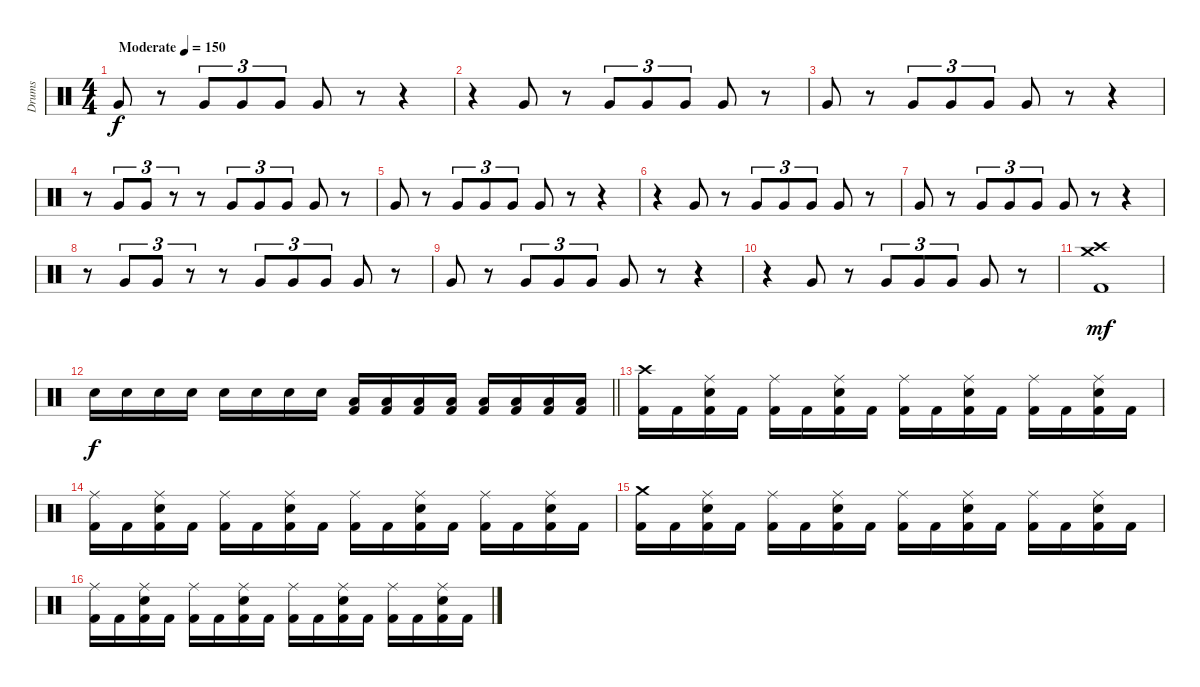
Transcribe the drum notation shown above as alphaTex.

\track ("Drums" "Drums") {instrument percussion}
\staff {score}
\articulation defaults
\ts (4 4)
\tempo (150 "Moderate")
\clef neutral
\ks c "Very Low Tom (hit)".8{dy f}
r.8 "Very Low Tom (hit)".8{tu (3 2)} "Very Low Tom (hit)".8{tu (3 2)} "Very Low Tom (hit)".8{tu (3 2)} "Very Low Tom (hit)".8 r.8 r.4 |
r.4 "Very Low Tom (hit)".8 r.8 "Very Low Tom (hit)".8{tu (3 2)} "Very Low Tom (hit)".8{tu (3 2)} "Very Low Tom (hit)".8{tu (3 2)} "Very Low Tom (hit)".8 r.8 |
"Very Low Tom (hit)".8 r.8 "Very Low Tom (hit)".8{tu (3 2)} "Very Low Tom (hit)".8{tu (3 2)} "Very Low Tom (hit)".8{tu (3 2)} "Very Low Tom (hit)".8 r.8 r.4 |
r.8 "Very Low Tom (hit)".8{tu (3 2)} "Very Low Tom (hit)".8{tu (3 2)} r.8{tu (3 2)} r.8 "Very Low Tom (hit)".8{tu (3 2)} "Very Low Tom (hit)".8{tu (3 2)} "Very Low Tom (hit)".8{tu (3 2)} "Very Low Tom (hit)".8 r.8 |
"Very Low Tom (hit)".8 r.8 "Very Low Tom (hit)".8{tu (3 2)} "Very Low Tom (hit)".8{tu (3 2)} "Very Low Tom (hit)".8{tu (3 2)} "Very Low Tom (hit)".8 r.8 r.4 |
r.4 "Very Low Tom (hit)".8 r.8 "Very Low Tom (hit)".8{tu (3 2)} "Very Low Tom (hit)".8{tu (3 2)} "Very Low Tom (hit)".8{tu (3 2)} "Very Low Tom (hit)".8 r.8 |
"Very Low Tom (hit)".8 r.8 "Very Low Tom (hit)".8{tu (3 2)} "Very Low Tom (hit)".8{tu (3 2)} "Very Low Tom (hit)".8{tu (3 2)} "Very Low Tom (hit)".8 r.8 r.4 |
r.8 "Very Low Tom (hit)".8{tu (3 2)} "Very Low Tom (hit)".8{tu (3 2)} r.8{tu (3 2)} r.8 "Very Low Tom (hit)".8{tu (3 2)} "Very Low Tom (hit)".8{tu (3 2)} "Very Low Tom (hit)".8{tu (3 2)} "Very Low Tom (hit)".8 r.8 |
"Very Low Tom (hit)".8 r.8 "Very Low Tom (hit)".8{tu (3 2)} "Very Low Tom (hit)".8{tu (3 2)} "Very Low Tom (hit)".8{tu (3 2)} "Very Low Tom (hit)".8 r.8 r.4 |
r.4 "Very Low Tom (hit)".8 r.8 "Very Low Tom (hit)".8{tu (3 2)} "Very Low Tom (hit)".8{tu (3 2)} "Very Low Tom (hit)".8{tu (3 2)} "Very Low Tom (hit)".8 r.8 |
("Crash medium (hit)" "Crash high (hit)" "Kick (hit) 2").1{dy mf} |
\barLineRight lightlight "Snare (hit) 2".16{dy f} "Snare (hit) 2".16 "Snare (hit) 2".16 "Snare (hit) 2".16 "Snare (hit) 2".16 "Snare (hit) 2".16 "Snare (hit) 2".16 "Snare (hit) 2".16
("Low Tom (hit)" "Kick (hit) 2").16 ("Low Tom (hit)" "Kick (hit) 2").16 ("Low Tom (hit)" "Kick (hit) 2").16 ("Low Tom (hit)" "Kick (hit) 2").16 ("Low Floor Tom (hit)" "Kick (hit) 2").16 ("Low Floor Tom (hit)" "Kick (hit) 2").16 ("Low Floor Tom (hit)" "Kick (hit) 2").16 ("Low Floor Tom (hit)" "Kick (hit) 2").16 |
\section ("" "")
("Crash high (hit)" "Kick (hit) 2").16 "Kick (hit) 2".16 ("Ride (middle)" "Snare (hit) 2" "Kick (hit) 2").16 "Kick (hit) 2".16 ("Ride (middle)" "Kick (hit) 2").16 "Kick (hit) 2".16 ("Ride (middle)" "Snare (hit) 2" "Kick (hit) 2").16 "Kick (hit) 2".16 ("Ride (middle)" "Kick (hit) 2").16 "Kick (hit) 2".16 ("Ride (middle)" "Snare (hit) 2" "Kick (hit) 2").16 "Kick (hit) 2".16 ("Ride (middle)" "Kick (hit) 2").16 "Kick (hit) 2".16 ("Ride (middle)" "Snare (hit) 2" "Kick (hit) 2").16 "Kick (hit) 2".16 |
("Ride (middle)" "Kick (hit) 2").16 "Kick (hit) 2".16 ("Ride (middle)" "Snare (hit) 2" "Kick (hit) 2").16 "Kick (hit) 2".16 ("Ride (middle)" "Kick (hit) 2").16 "Kick (hit) 2".16 ("Ride (middle)" "Snare (hit) 2" "Kick (hit) 2").16 "Kick (hit) 2".16 ("Ride (middle)" "Kick (hit) 2").16 "Kick (hit) 2".16 ("Ride (middle)" "Snare (hit) 2" "Kick (hit) 2").16 "Kick (hit) 2".16 ("Ride (middle)" "Kick (hit) 2").16 "Kick (hit) 2".16 ("Ride (middle)" "Snare (hit) 2" "Kick (hit) 2").16 "Kick (hit) 2".16 |
("Crash medium (hit)" "Kick (hit) 2").16 "Kick (hit) 2".16 ("Ride (middle)" "Snare (hit) 2" "Kick (hit) 2").16 "Kick (hit) 2".16 ("Ride (middle)" "Kick (hit) 2").16 "Kick (hit) 2".16 ("Ride (middle)" "Snare (hit) 2" "Kick (hit) 2").16 "Kick (hit) 2".16 ("Ride (middle)" "Kick (hit) 2").16 "Kick (hit) 2".16 ("Ride (middle)" "Snare (hit) 2" "Kick (hit) 2").16 "Kick (hit) 2".16 ("Ride (middle)" "Kick (hit) 2").16 "Kick (hit) 2".16 ("Ride (middle)" "Snare (hit) 2" "Kick (hit) 2").16 "Kick (hit) 2".16 |
("Ride (middle)" "Kick (hit) 2").16 "Kick (hit) 2".16 ("Ride (middle)" "Snare (hit) 2" "Kick (hit) 2").16 "Kick (hit) 2".16 ("Ride (middle)" "Kick (hit) 2").16 "Kick (hit) 2".16 ("Ride (middle)" "Snare (hit) 2" "Kick (hit) 2").16 "Kick (hit) 2".16 ("Ride (middle)" "Kick (hit) 2").16 "Kick (hit) 2".16 ("Ride (middle)" "Snare (hit) 2" "Kick (hit) 2").16 "Kick (hit) 2".16 ("Ride (middle)" "Kick (hit) 2").16 "Kick (hit) 2".16 ("Ride (middle)" "Snare (hit) 2" "Kick (hit) 2").16 "Kick (hit) 2".16
